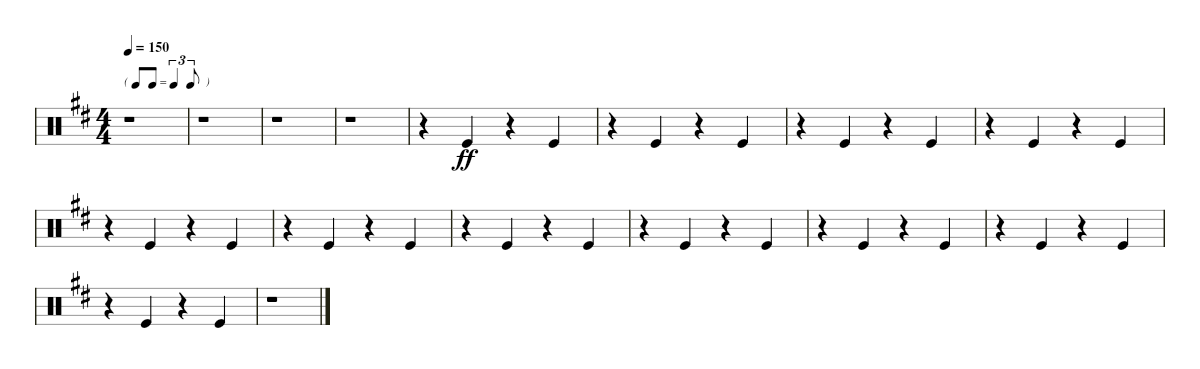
\bracketExtendMode nobrackets
\singleTrackTrackNamePolicy hidden
\multiTrackTrackNamePolicy hidden
\firstSystemTrackNameMode fullname
\firstSystemTrackNameOrientation horizontal
\otherSystemsTrackNameOrientation horizontal
\defaultBarNumberDisplay Hide
\track ("Hand Clap" "H-Clap") {instrument percussion}
\staff {score}
\articulation defaults
\ts (4 4)
\tf triplet8th
\tempo 150
\clef neutral
\ks d
r.1{dy ff} |
r.1 |
r.1 |
r.1 |
r.4 "Kick (hit)".4 r.4 "Kick (hit)".4 |
r.4 "Kick (hit)".4 r.4 "Kick (hit)".4 |
r.4 "Kick (hit)".4 r.4 "Kick (hit)".4 |
r.4 "Kick (hit)".4 r.4 "Kick (hit)".4 |
r.4 "Kick (hit)".4 r.4 "Kick (hit)".4 |
r.4 "Kick (hit)".4 r.4 "Kick (hit)".4 |
r.4 "Kick (hit)".4 r.4 "Kick (hit)".4 |
r.4 "Kick (hit)".4 r.4 "Kick (hit)".4 |
r.4 "Kick (hit)".4 r.4 "Kick (hit)".4 |
r.4 "Kick (hit)".4 r.4 "Kick (hit)".4 |
r.4 "Kick (hit)".4 r.4 "Kick (hit)".4 |
r.1
